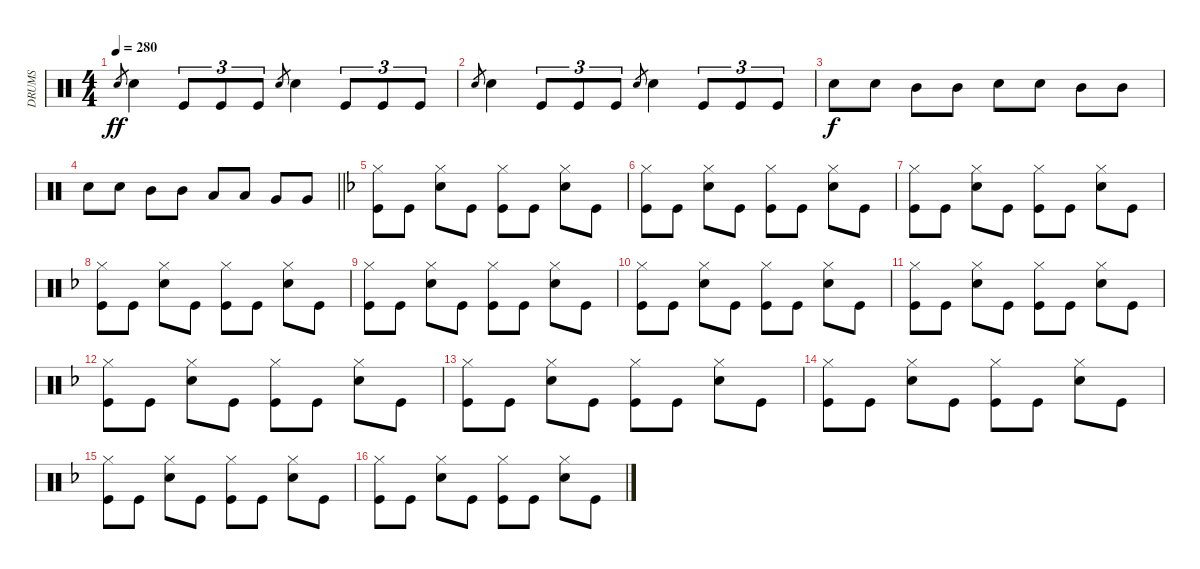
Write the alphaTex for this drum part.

\track ("DRUMS" "DRUMS") {instrument percussion}
\staff {score}
\articulation defaults
\ts (4 4)
\tempo 280
\clef neutral
\ks c "Snare (hit) 2".8{gr dy ff} "Snare (hit) 2".4 "Kick (hit)".8{tu (3 2)} "Kick (hit)".8{tu (3 2)} "Kick (hit)".8{tu (3 2)} "Snare (hit) 2".8{gr} "Snare (hit) 2".4 "Kick (hit)".8{tu (3 2)} "Kick (hit)".8{tu (3 2)} "Kick (hit)".8{tu (3 2)}
|
"Snare (hit) 2".8{gr} "Snare (hit) 2".4 "Kick (hit)".8{tu (3 2)} "Kick (hit)".8{tu (3 2)} "Kick (hit)".8{tu (3 2)} "Snare (hit) 2".8{gr} "Snare (hit) 2".4 "Kick (hit)".8{tu (3 2)} "Kick (hit)".8{tu (3 2)} "Kick (hit)".8{tu (3 2)} |
"Snare (hit) 2".8{dy f} "Snare (hit) 2".8 "Mid Tom (hit)".8 "Mid Tom (hit)".8 "Snare (hit) 2".8 "Snare (hit) 2".8 "Mid Tom (hit)".8 "Mid Tom (hit)".8 |
\barLineRight lightlight "Snare (hit) 2".8 "Snare (hit) 2".8 "Mid Tom (hit)".8 "Mid Tom (hit)".8 "Low Tom (hit)".8 "Low Tom (hit)".8 "Very Low Tom (hit)".8 "Very Low Tom (hit)".8
|
\ks dminor
("Hi-Hat (closed)" "Kick (hit)").8 "Kick (hit)".8 ("Hi-Hat (closed)" "Snare (hit) 2").8 "Kick (hit)".8 ("Hi-Hat (closed)" "Kick (hit)").8 "Kick (hit)".8 ("Hi-Hat (closed)" "Snare (hit) 2").8 "Kick (hit)".8 |
("Hi-Hat (closed)" "Kick (hit)").8 "Kick (hit)".8 ("Hi-Hat (closed)" "Snare (hit) 2").8 "Kick (hit)".8 ("Hi-Hat (closed)" "Kick (hit)").8 "Kick (hit)".8 ("Hi-Hat (closed)" "Snare (hit) 2").8 "Kick (hit)".8 |
("Hi-Hat (closed)" "Kick (hit)").8 "Kick (hit)".8 ("Hi-Hat (closed)" "Snare (hit) 2").8 "Kick (hit)".8 ("Hi-Hat (closed)" "Kick (hit)").8 "Kick (hit)".8 ("Hi-Hat (closed)" "Snare (hit) 2").8 "Kick (hit)".8 |
("Hi-Hat (closed)" "Kick (hit)").8 "Kick (hit)".8 ("Hi-Hat (closed)" "Snare (hit) 2").8 "Kick (hit)".8 ("Hi-Hat (closed)" "Kick (hit)").8 "Kick (hit)".8 ("Hi-Hat (closed)" "Snare (hit) 2").8 "Kick (hit)".8 |
("Hi-Hat (closed)" "Kick (hit)").8 "Kick (hit)".8 ("Hi-Hat (closed)" "Snare (hit) 2").8 "Kick (hit)".8 ("Hi-Hat (closed)" "Kick (hit)").8 "Kick (hit)".8 ("Hi-Hat (closed)" "Snare (hit) 2").8 "Kick (hit)".8 |
("Hi-Hat (closed)" "Kick (hit)").8 "Kick (hit)".8 ("Hi-Hat (closed)" "Snare (hit) 2").8 "Kick (hit)".8 ("Hi-Hat (closed)" "Kick (hit)").8 "Kick (hit)".8 ("Hi-Hat (closed)" "Snare (hit) 2").8 "Kick (hit)".8 |
("Hi-Hat (closed)" "Kick (hit)").8 "Kick (hit)".8 ("Hi-Hat (closed)" "Snare (hit) 2").8 "Kick (hit)".8 ("Hi-Hat (closed)" "Kick (hit)").8 "Kick (hit)".8 ("Hi-Hat (closed)" "Snare (hit) 2").8 "Kick (hit)".8 |
("Hi-Hat (closed)" "Kick (hit)").8 "Kick (hit)".8 ("Hi-Hat (closed)" "Snare (hit) 2").8 "Kick (hit)".8 ("Hi-Hat (closed)" "Kick (hit)").8 "Kick (hit)".8 ("Hi-Hat (closed)" "Snare (hit) 2").8 "Kick (hit)".8 |
("Hi-Hat (closed)" "Kick (hit)").8 "Kick (hit)".8 ("Hi-Hat (closed)" "Snare (hit) 2").8 "Kick (hit)".8 ("Hi-Hat (closed)" "Kick (hit)").8 "Kick (hit)".8 ("Hi-Hat (closed)" "Snare (hit) 2").8 "Kick (hit)".8 |
("Hi-Hat (closed)" "Kick (hit)").8 "Kick (hit)".8 ("Hi-Hat (closed)" "Snare (hit) 2").8 "Kick (hit)".8 ("Hi-Hat (closed)" "Kick (hit)").8 "Kick (hit)".8 ("Hi-Hat (closed)" "Snare (hit) 2").8 "Kick (hit)".8 |
("Hi-Hat (closed)" "Kick (hit)").8 "Kick (hit)".8 ("Hi-Hat (closed)" "Snare (hit) 2").8 "Kick (hit)".8 ("Hi-Hat (closed)" "Kick (hit)").8 "Kick (hit)".8 ("Hi-Hat (closed)" "Snare (hit) 2").8 "Kick (hit)".8 |
("Hi-Hat (closed)" "Kick (hit)").8 "Kick (hit)".8 ("Hi-Hat (closed)" "Snare (hit) 2").8 "Kick (hit)".8 ("Hi-Hat (closed)" "Kick (hit)").8 "Kick (hit)".8 ("Hi-Hat (closed)" "Snare (hit) 2").8 "Kick (hit)".8
